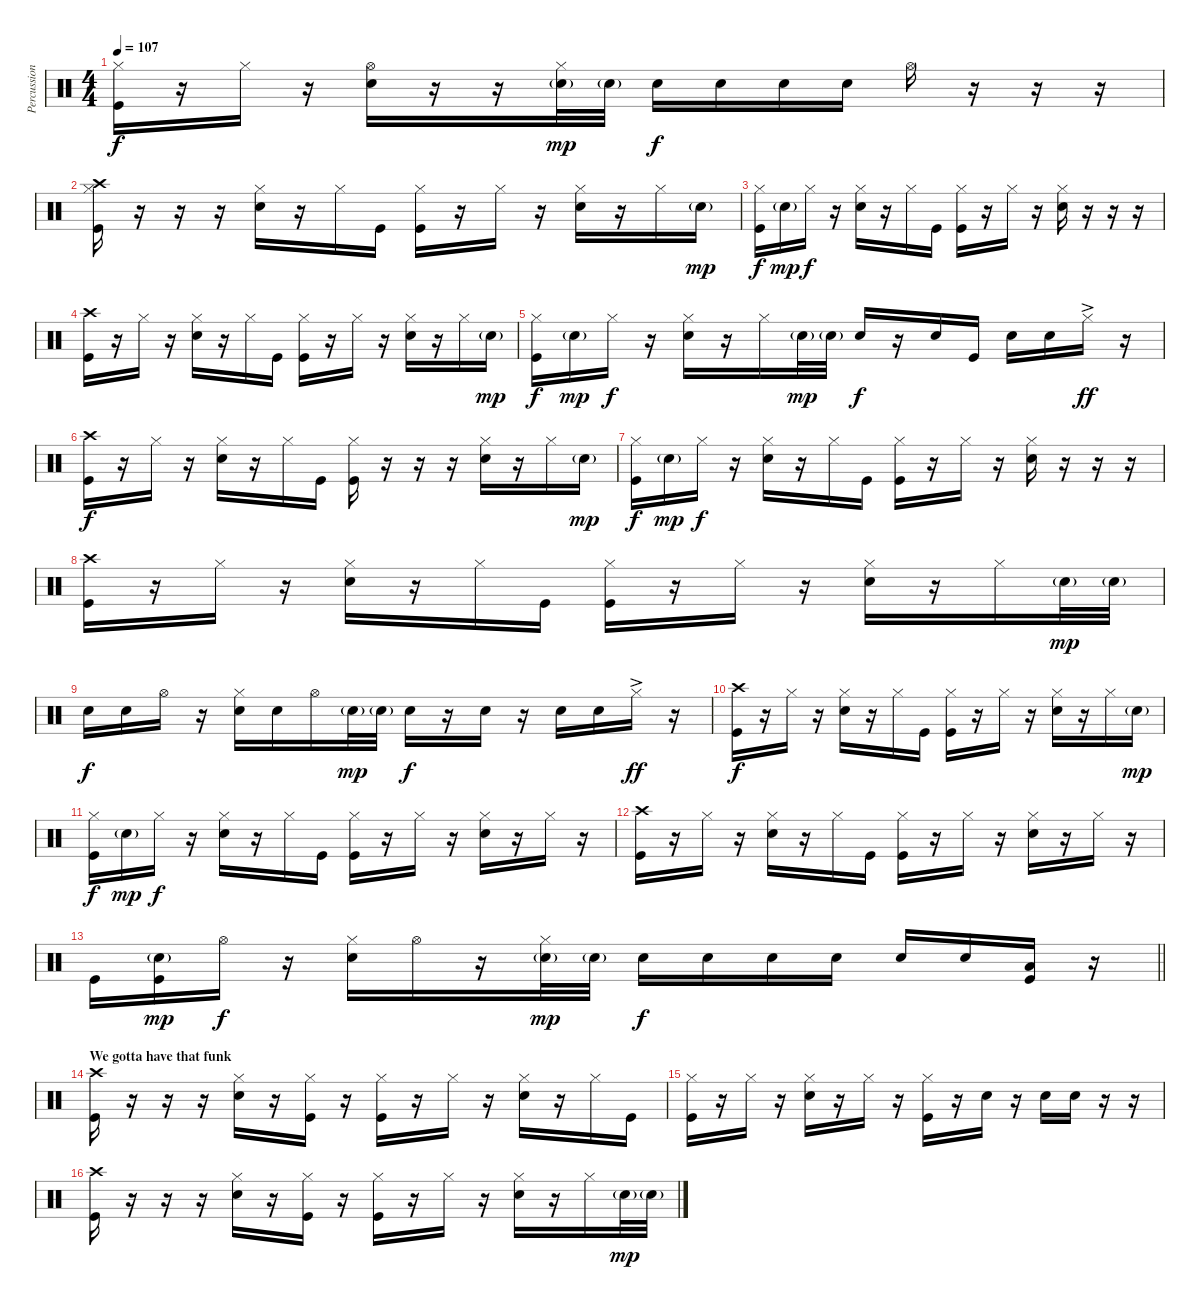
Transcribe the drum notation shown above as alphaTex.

\track ("Percussion" "Percussion") {instrument percussion}
\staff {score}
\articulation defaults
\ts (4 4)
\tempo 107
\clef neutral
\ks c
("Hi-Hat (closed)" "Kick (hit)").16{dy f} r.16 "Hi-Hat (closed)".16 r.16 ("Hi-Hat (open)" "Snare (hit) 2").16 r.16 r.16 ("Hi-Hat (closed)" "Snare (hit) 2"{g}).32{dy mp} "Snare (hit) 2"{g}.32 "Snare (hit) 2".16{dy f} "Snare (hit) 2".16 "Snare (hit) 2".16 "Snare (hit) 2".16 "Hi-Hat (open)".16 r.16 r.16 r.16 |
("Crash high (hit)" "Hi-Hat (closed)" "Kick (hit)").16 r.16 r.16 r.16 ("Hi-Hat (closed)" "Snare (hit) 2").16 r.16 "Hi-Hat (closed)".16 "Kick (hit)".16 ("Hi-Hat (closed)" "Kick (hit)").16 r.16 "Hi-Hat (closed)".16 r.16 ("Hi-Hat (closed)" "Snare (hit) 2").16 r.16 "Hi-Hat (closed)".16 "Snare (hit) 2"{g}.16{dy mp} |
("Hi-Hat (closed)" "Kick (hit)").16{dy f} "Snare (hit) 2"{g}.16{dy mp} "Hi-Hat (closed)".16{dy f} r.16 ("Hi-Hat (closed)" "Snare (hit) 2").16 r.16 "Hi-Hat (closed)".16 "Kick (hit)".16 ("Hi-Hat (closed)" "Kick (hit)").16 r.16 "Hi-Hat (closed)".16 r.16 ("Hi-Hat (closed)" "Snare (hit) 2").16 r.16 r.16 r.16 |
("Crash high (hit)" "Kick (hit)").16 r.16 "Hi-Hat (closed)".16 r.16 ("Hi-Hat (closed)" "Snare (hit) 2").16 r.16 "Hi-Hat (closed)".16 "Kick (hit)".16 ("Hi-Hat (closed)" "Kick (hit)").16 r.16 "Hi-Hat (closed)".16 r.16 ("Hi-Hat (closed)" "Snare (hit) 2").16 r.16 "Hi-Hat (closed)".16 "Snare (hit) 2"{g}.16{dy mp} |
("Hi-Hat (closed)" "Kick (hit)").16{dy f} "Snare (hit) 2"{g}.16{dy mp} "Hi-Hat (closed)".16{dy f} r.16 ("Hi-Hat (closed)" "Snare (hit) 2").16 r.16 "Hi-Hat (closed)".16 "Snare (hit) 2"{g}.32{dy mp} "Snare (hit) 2"{g}.32 "Snare (hit) 2".16{dy f} r.16 "Snare (hit) 2".16 "Kick (hit)".16 "Snare (hit) 2".16 "Snare (hit) 2".16 "Hi-Hat (closed)"{ac}.16{dy ff} r.16 |
("Crash high (hit)" "Kick (hit)").16{dy f} r.16 "Hi-Hat (closed)".16 r.16 ("Hi-Hat (closed)" "Snare (hit) 2").16 r.16 "Hi-Hat (closed)".16 "Kick (hit)".16 ("Hi-Hat (closed)" "Kick (hit)").16 r.16 r.16 r.16 ("Hi-Hat (closed)" "Snare (hit) 2").16 r.16 "Hi-Hat (closed)".16 "Snare (hit) 2"{g}.16{dy mp} |
("Hi-Hat (closed)" "Kick (hit)").16{dy f} "Snare (hit) 2"{g}.16{dy mp} "Hi-Hat (closed)".16{dy f} r.16 ("Hi-Hat (closed)" "Snare (hit) 2").16 r.16 "Hi-Hat (closed)".16 "Kick (hit)".16 ("Hi-Hat (closed)" "Kick (hit)").16 r.16 "Hi-Hat (closed)".16 r.16 ("Hi-Hat (closed)" "Snare (hit) 2").16 r.16 r.16 r.16 |
("Crash high (hit)" "Kick (hit)").16 r.16 "Hi-Hat (closed)".16 r.16 ("Hi-Hat (closed)" "Snare (hit) 2").16 r.16 "Hi-Hat (closed)".16 "Kick (hit)".16 ("Hi-Hat (closed)" "Kick (hit)").16 r.16 "Hi-Hat (closed)".16 r.16 ("Hi-Hat (closed)" "Snare (hit) 2").16 r.16 "Hi-Hat (closed)".16 "Snare (hit) 2"{g}.32{dy mp} "Snare (hit) 2"{g}.32 |
"Snare (hit) 2".16{dy f} "Snare (hit) 2".16 "Hi-Hat (open)".16 r.16 ("Hi-Hat (closed)" "Snare (hit) 2").16 "Snare (hit) 2".16 "Hi-Hat (open)".16 "Snare (hit) 2"{g}.32{dy mp} "Snare (hit) 2"{g}.32 "Snare (hit) 2".16{dy f} r.16 "Snare (hit) 2".16 r.16 "Snare (hit) 2".16 "Snare (hit) 2".16 "Hi-Hat (closed)"{ac}.16{dy ff} r.16 |
("Crash high (hit)" "Kick (hit)").16{dy f} r.16 "Hi-Hat (closed)".16 r.16 ("Hi-Hat (closed)" "Snare (hit) 2").16 r.16 "Hi-Hat (closed)".16 "Kick (hit)".16 ("Hi-Hat (closed)" "Kick (hit)").16 r.16 "Hi-Hat (closed)".16 r.16 ("Hi-Hat (closed)" "Snare (hit) 2").16 r.16 "Hi-Hat (closed)".16 "Snare (hit) 2"{g}.16{dy mp} |
("Hi-Hat (closed)" "Kick (hit)").16{dy f} "Snare (hit) 2"{g}.16{dy mp} "Hi-Hat (closed)".16{dy f} r.16 ("Hi-Hat (closed)" "Snare (hit) 2").16 r.16 "Hi-Hat (closed)".16 "Kick (hit)".16 ("Hi-Hat (closed)" "Kick (hit)").16 r.16 "Hi-Hat (closed)".16 r.16 ("Hi-Hat (closed)" "Snare (hit) 2").16 r.16 "Hi-Hat (closed)".16 r.16 |
("Crash high (hit)" "Kick (hit)").16 r.16 "Hi-Hat (closed)".16 r.16 ("Hi-Hat (closed)" "Snare (hit) 2").16 r.16 "Hi-Hat (closed)".16 "Kick (hit)".16 ("Hi-Hat (closed)" "Kick (hit)").16 r.16 "Hi-Hat (closed)".16 r.16 ("Hi-Hat (closed)" "Snare (hit) 2").16 r.16 "Hi-Hat (closed)".16 r.16 |
\barLineRight lightlight "Kick (hit)".16
("Snare (hit) 2"{g} "Kick (hit)").16{dy mp} "Hi-Hat (open)".16{dy f} r.16 ("Hi-Hat (closed)" "Snare (hit) 2").16 "Hi-Hat (open)".16 r.16 ("Hi-Hat (closed)" "Snare (hit) 2"{g}).32{dy mp} "Snare (hit) 2"{g}.32 "Snare (hit) 2".16{dy f} "Snare (hit) 2".16 "Snare (hit) 2".16 "Snare (hit) 2".16 "Snare (hit) 2".16 "Snare (hit) 2".16 ("Low Tom (hit)" "Kick (hit)").16 r.16 |
\section ("" "We gotta have that funk")
("Crash high (hit)" "Kick (hit)").16 r.16 r.16 r.16 ("Hi-Hat (closed)" "Snare (hit) 2").16 r.16 ("Hi-Hat (closed)" "Kick (hit)").16 r.16 ("Hi-Hat (closed)" "Kick (hit)").16 r.16 "Hi-Hat (closed)".16 r.16 ("Hi-Hat (closed)" "Snare (hit) 2").16 r.16 "Hi-Hat (closed)".16 "Kick (hit)".16 |
("Hi-Hat (closed)" "Kick (hit)").16 r.16 "Hi-Hat (closed)".16 r.16 ("Hi-Hat (closed)" "Snare (hit) 2").16 r.16 "Hi-Hat (closed)".16 r.16 ("Hi-Hat (closed)" "Kick (hit)").16 r.16 "Snare (hit) 2".16 r.16 "Snare (hit) 2".16 "Snare (hit) 2".16 r.16 r.16 |
("Crash high (hit)" "Kick (hit)").16 r.16 r.16 r.16 ("Hi-Hat (closed)" "Snare (hit) 2").16 r.16 ("Hi-Hat (closed)" "Kick (hit)").16 r.16 ("Hi-Hat (closed)" "Kick (hit)").16 r.16 "Hi-Hat (closed)".16 r.16 ("Hi-Hat (closed)" "Snare (hit) 2").16 r.16 "Hi-Hat (closed)".16 "Snare (hit) 2"{g}.32{dy mp} "Snare (hit) 2"{g}.32
